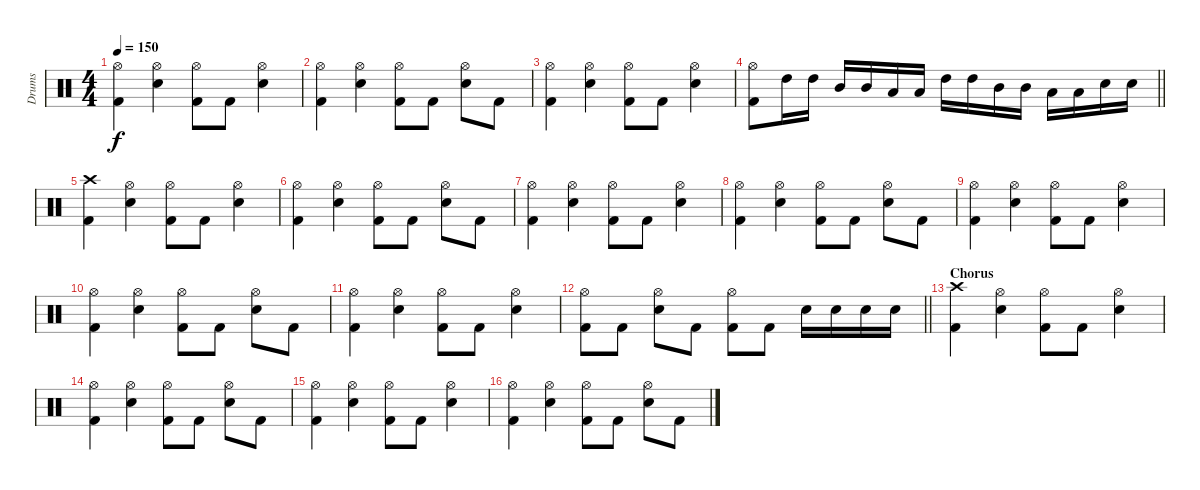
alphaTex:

\track ("Drums" "Drums") {instrument percussion}
\staff {score}
\articulation defaults
\ts (4 4)
\tempo 150
\clef neutral
\ks c
("Hi-Hat (open)" "Kick (hit) 2").4{dy f} ("Hi-Hat (open)" "Electric Snare (hit)").4 ("Hi-Hat (open)" "Kick (hit) 2").8 "Kick (hit) 2".8 ("Hi-Hat (open)" "Electric Snare (hit)").4 |
("Hi-Hat (open)" "Kick (hit) 2").4 ("Hi-Hat (open)" "Electric Snare (hit)").4 ("Hi-Hat (open)" "Kick (hit) 2").8 "Kick (hit) 2".8 ("Hi-Hat (open)" "Electric Snare (hit)").8 "Kick (hit) 2".8 |
("Hi-Hat (open)" "Kick (hit) 2").4 ("Hi-Hat (open)" "Electric Snare (hit)").4 ("Hi-Hat (open)" "Kick (hit) 2").8 "Kick (hit) 2".8 ("Hi-Hat (open)" "Electric Snare (hit)").4 |
\barLineRight lightlight
("Hi-Hat (open)" "Kick (hit) 2").8 "High Tom (hit)".16 "High Tom (hit)".16 "Mid Tom (hit)".16 "Mid Tom (hit)".16 "Low Tom (hit)".16 "Low Tom (hit)".16 "High Tom (hit)".16 "High Tom (hit)".16 "Mid Tom (hit)".16 "Mid Tom (hit)".16 "Low Tom (hit)".16 "Low Tom (hit)".16 "Electric Snare (hit)".16 "Electric Snare (hit)".16 |
("Crash high (hit)" "Kick (hit) 2").4 ("Hi-Hat (open)" "Electric Snare (hit)").4 ("Hi-Hat (open)" "Kick (hit) 2").8 "Kick (hit) 2".8 ("Hi-Hat (open)" "Electric Snare (hit)").4 |
("Hi-Hat (open)" "Kick (hit) 2").4 ("Hi-Hat (open)" "Electric Snare (hit)").4 ("Hi-Hat (open)" "Kick (hit) 2").8 "Kick (hit) 2".8 ("Hi-Hat (open)" "Electric Snare (hit)").8 "Kick (hit) 2".8 |
("Hi-Hat (open)" "Kick (hit) 2").4 ("Hi-Hat (open)" "Electric Snare (hit)").4 ("Hi-Hat (open)" "Kick (hit) 2").8 "Kick (hit) 2".8 ("Hi-Hat (open)" "Electric Snare (hit)").4 |
("Hi-Hat (open)" "Kick (hit) 2").4 ("Hi-Hat (open)" "Electric Snare (hit)").4 ("Hi-Hat (open)" "Kick (hit) 2").8 "Kick (hit) 2".8 ("Hi-Hat (open)" "Electric Snare (hit)").8 "Kick (hit) 2".8 |
("Hi-Hat (open)" "Kick (hit) 2").4 ("Hi-Hat (open)" "Electric Snare (hit)").4 ("Hi-Hat (open)" "Kick (hit) 2").8 "Kick (hit) 2".8 ("Hi-Hat (open)" "Electric Snare (hit)").4 |
("Hi-Hat (open)" "Kick (hit) 2").4 ("Hi-Hat (open)" "Electric Snare (hit)").4 ("Hi-Hat (open)" "Kick (hit) 2").8 "Kick (hit) 2".8 ("Hi-Hat (open)" "Electric Snare (hit)").8 "Kick (hit) 2".8 |
("Hi-Hat (open)" "Kick (hit) 2").4 ("Hi-Hat (open)" "Electric Snare (hit)").4 ("Hi-Hat (open)" "Kick (hit) 2").8 "Kick (hit) 2".8 ("Hi-Hat (open)" "Electric Snare (hit)").4 |
\barLineRight lightlight
("Hi-Hat (open)" "Kick (hit) 2").8 "Kick (hit) 2".8 ("Hi-Hat (open)" "Electric Snare (hit)").8 "Kick (hit) 2".8 ("Hi-Hat (open)" "Kick (hit) 2").8 "Kick (hit) 2".8 "Electric Snare (hit)".16 "Electric Snare (hit)".16 "Electric Snare (hit)".16 "Electric Snare (hit)".16 |
\section ("" "Chorus ")
("Crash high (hit)" "Kick (hit) 2").4 ("Hi-Hat (open)" "Electric Snare (hit)").4 ("Hi-Hat (open)" "Kick (hit) 2").8 "Kick (hit) 2".8 ("Hi-Hat (open)" "Electric Snare (hit)").4 |
("Hi-Hat (open)" "Kick (hit) 2").4 ("Hi-Hat (open)" "Electric Snare (hit)").4 ("Hi-Hat (open)" "Kick (hit) 2").8 "Kick (hit) 2".8 ("Hi-Hat (open)" "Electric Snare (hit)").8 "Kick (hit) 2".8 |
("Hi-Hat (open)" "Kick (hit) 2").4 ("Hi-Hat (open)" "Electric Snare (hit)").4 ("Hi-Hat (open)" "Kick (hit) 2").8 "Kick (hit) 2".8 ("Hi-Hat (open)" "Electric Snare (hit)").4 |
("Hi-Hat (open)" "Kick (hit) 2").4 ("Hi-Hat (open)" "Electric Snare (hit)").4 ("Hi-Hat (open)" "Kick (hit) 2").8 "Kick (hit) 2".8 ("Hi-Hat (open)" "Electric Snare (hit)").8 "Kick (hit) 2".8
